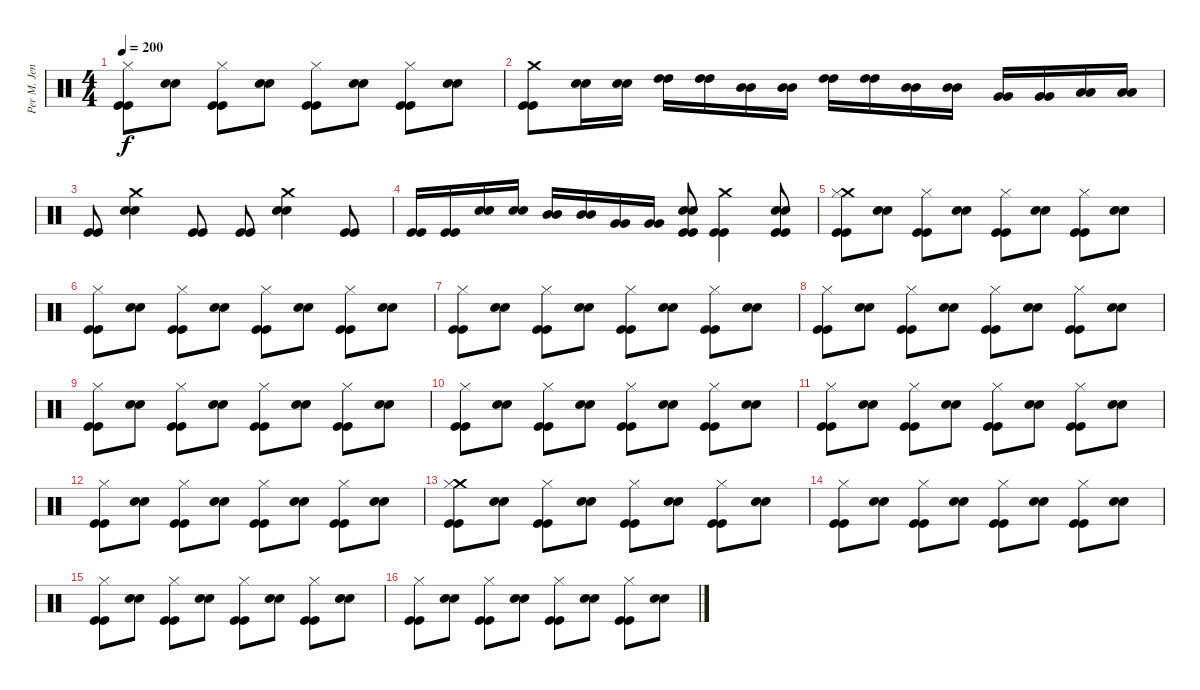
\track ("Per M. Jensen" "Per M. Jen") {instrument percussion}
\staff {score}
\articulation defaults
\ts (4 4)
\tempo 200
\clef neutral
\ks c
("Hi-Hat (closed)" "Kick (hit)" "Kick (hit)").8{dy f} ("Snare (hit) 2" "Snare (hit) 2").8 ("Hi-Hat (closed)" "Kick (hit)" "Kick (hit)").8 ("Snare (hit) 2" "Snare (hit) 2").8 ("Hi-Hat (closed)" "Kick (hit)" "Kick (hit)").8 ("Snare (hit) 2" "Snare (hit) 2").8 ("Hi-Hat (closed)" "Kick (hit)" "Kick (hit)").8 ("Snare (hit) 2" "Snare (hit) 2").8 |
("Crash medium (hit)" "Kick (hit)" "Kick (hit)").8 ("Snare (hit) 2" "Snare (hit) 2").16 ("Snare (hit) 2" "Snare (hit) 2").16 ("High Tom (hit)" "High Tom (hit)").16 ("High Tom (hit)" "High Tom (hit)").16 ("Mid Tom (hit)" "Mid Tom (hit)").16 ("Mid Tom (hit)" "Mid Tom (hit)").16 ("High Tom (hit)" "High Tom (hit)").16 ("High Tom (hit)" "High Tom (hit)").16 ("Mid Tom (hit)" "Mid Tom (hit)").16 ("Mid Tom (hit)" "Mid Tom (hit)").16 ("Very Low Tom (hit)" "Very Low Tom (hit)").16 ("Very Low Tom (hit)" "Very Low Tom (hit)").16 ("Low Floor Tom (hit)" "Low Floor Tom (hit)").16 ("Low Floor Tom (hit)" "Low Floor Tom (hit)").16 |
("Kick (hit)" "Kick (hit)").8 ("Crash medium (hit)" "Snare (hit) 2" "Snare (hit) 2").4 ("Kick (hit)" "Kick (hit)").8 ("Kick (hit)" "Kick (hit)").8 ("Crash medium (hit)" "Snare (hit) 2" "Snare (hit) 2").4 ("Kick (hit)" "Kick (hit)").8 |
("Kick (hit)" "Kick (hit)").16 ("Kick (hit)" "Kick (hit)").16 ("Snare (hit) 2" "Snare (hit) 2").16 ("Snare (hit) 2" "Snare (hit) 2").16 ("Mid Tom (hit)" "Mid Tom (hit)").16 ("Mid Tom (hit)" "Mid Tom (hit)").16 ("Very Low Tom (hit)" "Very Low Tom (hit)").16 ("Very Low Tom (hit)" "Very Low Tom (hit)").16 ("Snare (hit) 2" "Snare (hit) 2" "Kick (hit)" "Kick (hit)").8 ("Crash medium (hit)" "Kick (hit)" "Kick (hit)").4 ("Snare (hit) 2" "Snare (hit) 2" "Kick (hit)" "Kick (hit)").8 |
("Crash medium (hit)" "Hi-Hat (closed)" "Kick (hit)" "Kick (hit)").8 ("Snare (hit) 2" "Snare (hit) 2").8 ("Hi-Hat (closed)" "Kick (hit)" "Kick (hit)").8 ("Snare (hit) 2" "Snare (hit) 2").8 ("Hi-Hat (closed)" "Kick (hit)" "Kick (hit)").8 ("Snare (hit) 2" "Snare (hit) 2").8 ("Hi-Hat (closed)" "Kick (hit)" "Kick (hit)").8 ("Snare (hit) 2" "Snare (hit) 2").8 |
("Hi-Hat (closed)" "Kick (hit)" "Kick (hit)").8 ("Snare (hit) 2" "Snare (hit) 2").8 ("Hi-Hat (closed)" "Kick (hit)" "Kick (hit)").8 ("Snare (hit) 2" "Snare (hit) 2").8 ("Hi-Hat (closed)" "Kick (hit)" "Kick (hit)").8 ("Snare (hit) 2" "Snare (hit) 2").8 ("Hi-Hat (closed)" "Kick (hit)" "Kick (hit)").8 ("Snare (hit) 2" "Snare (hit) 2").8 |
("Hi-Hat (closed)" "Kick (hit)" "Kick (hit)").8 ("Snare (hit) 2" "Snare (hit) 2").8 ("Hi-Hat (closed)" "Kick (hit)" "Kick (hit)").8 ("Snare (hit) 2" "Snare (hit) 2").8 ("Hi-Hat (closed)" "Kick (hit)" "Kick (hit)").8 ("Snare (hit) 2" "Snare (hit) 2").8 ("Hi-Hat (closed)" "Kick (hit)" "Kick (hit)").8 ("Snare (hit) 2" "Snare (hit) 2").8 |
("Hi-Hat (closed)" "Kick (hit)" "Kick (hit)").8 ("Snare (hit) 2" "Snare (hit) 2").8 ("Hi-Hat (closed)" "Kick (hit)" "Kick (hit)").8 ("Snare (hit) 2" "Snare (hit) 2").8 ("Hi-Hat (closed)" "Kick (hit)" "Kick (hit)").8 ("Snare (hit) 2" "Snare (hit) 2").8 ("Hi-Hat (closed)" "Kick (hit)" "Kick (hit)").8 ("Snare (hit) 2" "Snare (hit) 2").8 |
("Hi-Hat (closed)" "Kick (hit)" "Kick (hit)").8 ("Snare (hit) 2" "Snare (hit) 2").8 ("Hi-Hat (closed)" "Kick (hit)" "Kick (hit)").8 ("Snare (hit) 2" "Snare (hit) 2").8 ("Hi-Hat (closed)" "Kick (hit)" "Kick (hit)").8 ("Snare (hit) 2" "Snare (hit) 2").8 ("Hi-Hat (closed)" "Kick (hit)" "Kick (hit)").8 ("Snare (hit) 2" "Snare (hit) 2").8 |
("Hi-Hat (closed)" "Kick (hit)" "Kick (hit)").8 ("Snare (hit) 2" "Snare (hit) 2").8 ("Hi-Hat (closed)" "Kick (hit)" "Kick (hit)").8 ("Snare (hit) 2" "Snare (hit) 2").8 ("Hi-Hat (closed)" "Kick (hit)" "Kick (hit)").8 ("Snare (hit) 2" "Snare (hit) 2").8 ("Hi-Hat (closed)" "Kick (hit)" "Kick (hit)").8 ("Snare (hit) 2" "Snare (hit) 2").8 |
("Hi-Hat (closed)" "Kick (hit)" "Kick (hit)").8 ("Snare (hit) 2" "Snare (hit) 2").8 ("Hi-Hat (closed)" "Kick (hit)" "Kick (hit)").8 ("Snare (hit) 2" "Snare (hit) 2").8 ("Hi-Hat (closed)" "Kick (hit)" "Kick (hit)").8 ("Snare (hit) 2" "Snare (hit) 2").8 ("Hi-Hat (closed)" "Kick (hit)" "Kick (hit)").8 ("Snare (hit) 2" "Snare (hit) 2").8 |
("Hi-Hat (closed)" "Kick (hit)" "Kick (hit)").8 ("Snare (hit) 2" "Snare (hit) 2").8 ("Hi-Hat (closed)" "Kick (hit)" "Kick (hit)").8 ("Snare (hit) 2" "Snare (hit) 2").8 ("Hi-Hat (closed)" "Kick (hit)" "Kick (hit)").8 ("Snare (hit) 2" "Snare (hit) 2").8 ("Hi-Hat (closed)" "Kick (hit)" "Kick (hit)").8 ("Snare (hit) 2" "Snare (hit) 2").8 |
("Crash medium (hit)" "Hi-Hat (closed)" "Kick (hit)" "Kick (hit)").8 ("Snare (hit) 2" "Snare (hit) 2").8 ("Hi-Hat (closed)" "Kick (hit)" "Kick (hit)").8 ("Snare (hit) 2" "Snare (hit) 2").8 ("Hi-Hat (closed)" "Kick (hit)" "Kick (hit)").8 ("Snare (hit) 2" "Snare (hit) 2").8 ("Hi-Hat (closed)" "Kick (hit)" "Kick (hit)").8 ("Snare (hit) 2" "Snare (hit) 2").8 |
("Hi-Hat (closed)" "Kick (hit)" "Kick (hit)").8 ("Snare (hit) 2" "Snare (hit) 2").8 ("Hi-Hat (closed)" "Kick (hit)" "Kick (hit)").8 ("Snare (hit) 2" "Snare (hit) 2").8 ("Hi-Hat (closed)" "Kick (hit)" "Kick (hit)").8 ("Snare (hit) 2" "Snare (hit) 2").8 ("Hi-Hat (closed)" "Kick (hit)" "Kick (hit)").8 ("Snare (hit) 2" "Snare (hit) 2").8 |
("Hi-Hat (closed)" "Kick (hit)" "Kick (hit)").8 ("Snare (hit) 2" "Snare (hit) 2").8 ("Hi-Hat (closed)" "Kick (hit)" "Kick (hit)").8 ("Snare (hit) 2" "Snare (hit) 2").8 ("Hi-Hat (closed)" "Kick (hit)" "Kick (hit)").8 ("Snare (hit) 2" "Snare (hit) 2").8 ("Hi-Hat (closed)" "Kick (hit)" "Kick (hit)").8 ("Snare (hit) 2" "Snare (hit) 2").8 |
("Hi-Hat (closed)" "Kick (hit)" "Kick (hit)").8 ("Snare (hit) 2" "Snare (hit) 2").8 ("Hi-Hat (closed)" "Kick (hit)" "Kick (hit)").8 ("Snare (hit) 2" "Snare (hit) 2").8 ("Hi-Hat (closed)" "Kick (hit)" "Kick (hit)").8 ("Snare (hit) 2" "Snare (hit) 2").8 ("Hi-Hat (closed)" "Kick (hit)" "Kick (hit)").8 ("Snare (hit) 2" "Snare (hit) 2").8
